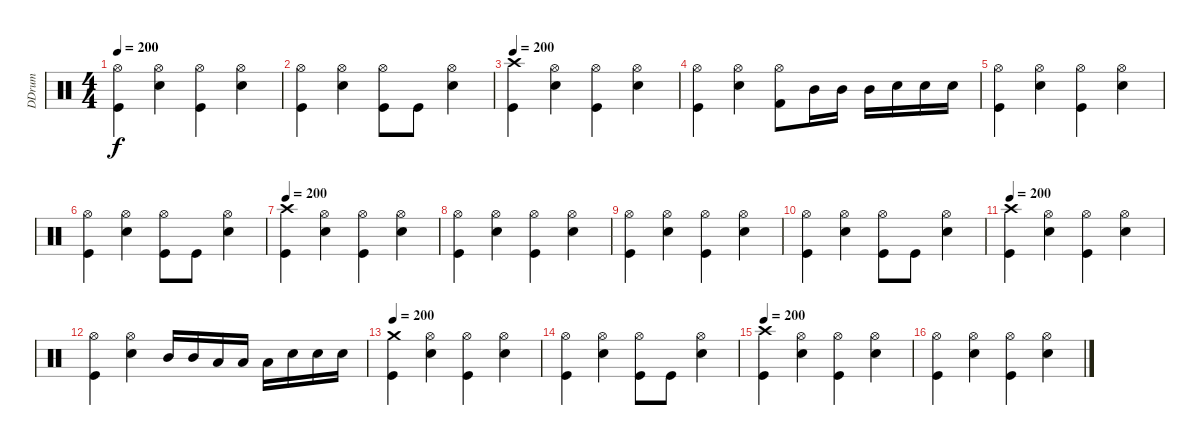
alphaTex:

\track ("DDrum" "DDrum") {instrument percussion}
\staff {score}
\articulation defaults
\ts (4 4)
\tempo 200
\clef neutral
\ks c
("Hi-Hat (open)" "Kick (hit)").4{dy f} ("Hi-Hat (open)" "Electric Snare (hit)").4 ("Hi-Hat (open)" "Kick (hit)").4 ("Hi-Hat (open)" "Electric Snare (hit)").4 |
("Hi-Hat (open)" "Kick (hit)").4 ("Hi-Hat (open)" "Electric Snare (hit)").4 ("Hi-Hat (open)" "Kick (hit)").8 "Kick (hit)".8 ("Hi-Hat (open)" "Electric Snare (hit)").4 |
\tempo 200
("Crash high (hit)" "Kick (hit)").4 ("Hi-Hat (open)" "Electric Snare (hit)").4 ("Hi-Hat (open)" "Kick (hit)").4 ("Hi-Hat (open)" "Electric Snare (hit)").4 |
("Hi-Hat (open)" "Kick (hit)").4 ("Hi-Hat (open)" "Electric Snare (hit)").4 ("Hi-Hat (open)" "Kick (hit) 2").8 "Mid Tom (hit)".16 "Mid Tom (hit)".16 "Mid Tom (hit)".16 "Electric Snare (hit)".16 "Electric Snare (hit)".16 "Electric Snare (hit)".16 |
("Hi-Hat (open)" "Kick (hit)").4 ("Hi-Hat (open)" "Electric Snare (hit)").4 ("Hi-Hat (open)" "Kick (hit)").4 ("Hi-Hat (open)" "Electric Snare (hit)").4 |
("Hi-Hat (open)" "Kick (hit)").4 ("Hi-Hat (open)" "Electric Snare (hit)").4 ("Hi-Hat (open)" "Kick (hit)").8 "Kick (hit)".8 ("Hi-Hat (open)" "Electric Snare (hit)").4 |
\tempo 200
("Crash high (hit)" "Kick (hit)").4 ("Hi-Hat (open)" "Electric Snare (hit)").4 ("Hi-Hat (open)" "Kick (hit)").4 ("Hi-Hat (open)" "Electric Snare (hit)").4 |
("Hi-Hat (open)" "Kick (hit)").4 ("Hi-Hat (open)" "Electric Snare (hit)").4 ("Hi-Hat (open)" "Kick (hit)").4 ("Hi-Hat (open)" "Electric Snare (hit)").4 |
("Hi-Hat (open)" "Kick (hit)").4 ("Hi-Hat (open)" "Electric Snare (hit)").4 ("Hi-Hat (open)" "Kick (hit)").4 ("Hi-Hat (open)" "Electric Snare (hit)").4 |
("Hi-Hat (open)" "Kick (hit)").4 ("Hi-Hat (open)" "Electric Snare (hit)").4 ("Hi-Hat (open)" "Kick (hit)").8 "Kick (hit)".8 ("Hi-Hat (open)" "Electric Snare (hit)").4 |
\tempo 200
("Crash high (hit)" "Kick (hit)").4 ("Hi-Hat (open)" "Electric Snare (hit)").4 ("Hi-Hat (open)" "Kick (hit)").4 ("Hi-Hat (open)" "Electric Snare (hit)").4 |
("Hi-Hat (open)" "Kick (hit)").4 ("Hi-Hat (open)" "Electric Snare (hit)").4 "Mid Tom (hit)".16 "Mid Tom (hit)".16 "Low Tom (hit)".16 "Low Tom (hit)".16 "Low Tom (hit)".16 "Electric Snare (hit)".16 "Electric Snare (hit)".16 "Electric Snare (hit)".16 |
\tempo 200
("Crash medium (hit)" "Kick (hit)").4 ("Hi-Hat (open)" "Electric Snare (hit)").4 ("Hi-Hat (open)" "Kick (hit)").4 ("Hi-Hat (open)" "Electric Snare (hit)").4 |
("Hi-Hat (open)" "Kick (hit)").4 ("Hi-Hat (open)" "Electric Snare (hit)").4 ("Hi-Hat (open)" "Kick (hit)").8 "Kick (hit)".8 ("Hi-Hat (open)" "Electric Snare (hit)").4 |
\tempo 200
("Crash high (hit)" "Kick (hit)").4 ("Hi-Hat (open)" "Electric Snare (hit)").4 ("Hi-Hat (open)" "Kick (hit)").4 ("Hi-Hat (open)" "Electric Snare (hit)").4 |
("Hi-Hat (open)" "Kick (hit)").4 ("Hi-Hat (open)" "Electric Snare (hit)").4 ("Hi-Hat (open)" "Kick (hit)").4 ("Hi-Hat (open)" "Electric Snare (hit)").4
